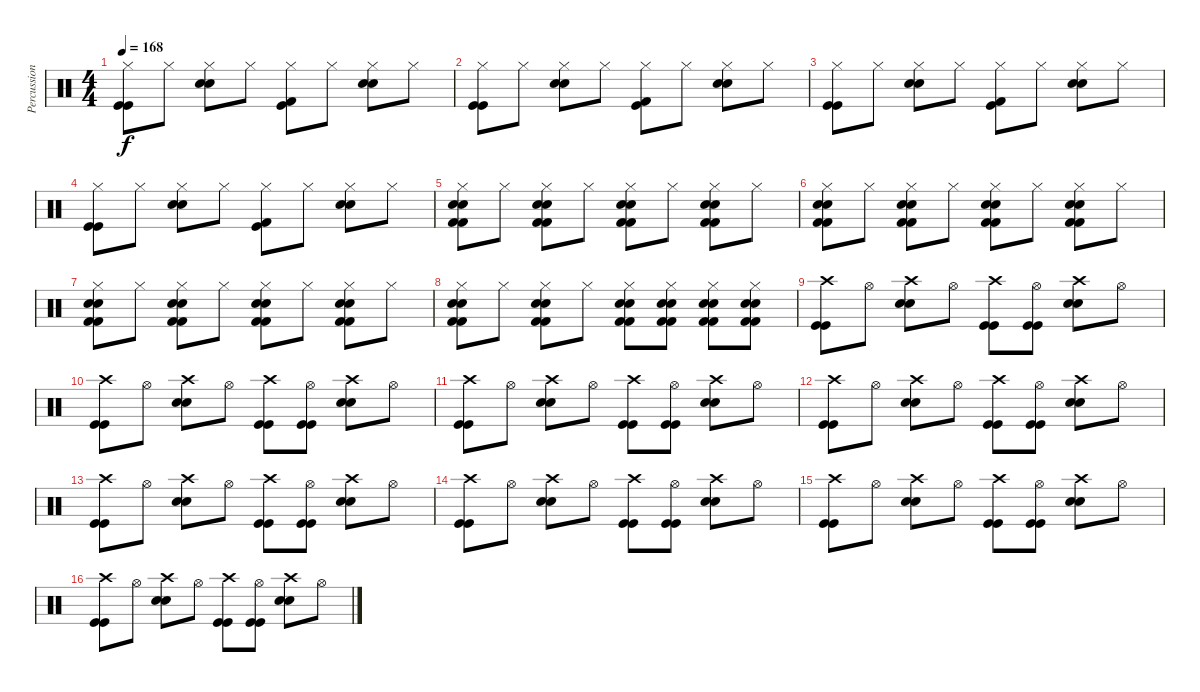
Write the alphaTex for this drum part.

\track ("Percussion" "Percussion") {instrument percussion}
\staff {score}
\articulation defaults
\ts (4 4)
\tempo 168
\clef neutral
\ks c
("Kick (hit)" "Hi-Hat (closed)" "Kick (hit)").8{dy f} "Hi-Hat (closed)".8 ("Snare (hit) 2" "Hi-Hat (closed)" "Snare (hit) 2").8 "Hi-Hat (closed)".8 ("Kick (hit)" "Hi-Hat (closed)" "Kick (hit) 2").8 "Hi-Hat (closed)".8 ("Snare (hit) 2" "Hi-Hat (closed)" "Snare (hit) 2").8 "Hi-Hat (closed)".8 |
("Kick (hit)" "Hi-Hat (closed)" "Kick (hit)").8 "Hi-Hat (closed)".8 ("Snare (hit) 2" "Hi-Hat (closed)" "Snare (hit) 2").8 "Hi-Hat (closed)".8 ("Kick (hit)" "Hi-Hat (closed)" "Kick (hit) 2").8 "Hi-Hat (closed)".8 ("Snare (hit) 2" "Hi-Hat (closed)" "Snare (hit) 2").8 "Hi-Hat (closed)".8 |
("Kick (hit)" "Hi-Hat (closed)" "Kick (hit)").8 "Hi-Hat (closed)".8 ("Snare (hit) 2" "Hi-Hat (closed)" "Snare (hit) 2").8 "Hi-Hat (closed)".8 ("Kick (hit)" "Hi-Hat (closed)" "Kick (hit) 2").8 "Hi-Hat (closed)".8 ("Snare (hit) 2" "Hi-Hat (closed)" "Snare (hit) 2").8 "Hi-Hat (closed)".8 |
("Kick (hit)" "Hi-Hat (closed)" "Kick (hit)").8 "Hi-Hat (closed)".8 ("Snare (hit) 2" "Hi-Hat (closed)" "Snare (hit) 2").8 "Hi-Hat (closed)".8 ("Kick (hit)" "Hi-Hat (closed)" "Kick (hit) 2").8 "Hi-Hat (closed)".8 ("Snare (hit) 2" "Hi-Hat (closed)" "Snare (hit) 2").8 "Hi-Hat (closed)".8 |
("Snare (hit) 2" "Kick (hit) 2" "Snare (hit) 2" "Hi-Hat (closed)" "Kick (hit) 2").8 "Hi-Hat (closed)".8 ("Snare (hit) 2" "Kick (hit) 2" "Snare (hit) 2" "Hi-Hat (closed)" "Kick (hit) 2").8 "Hi-Hat (closed)".8 ("Snare (hit) 2" "Kick (hit) 2" "Snare (hit) 2" "Hi-Hat (closed)" "Kick (hit) 2").8 "Hi-Hat (closed)".8 ("Snare (hit) 2" "Kick (hit) 2" "Snare (hit) 2" "Hi-Hat (closed)" "Kick (hit) 2").8 "Hi-Hat (closed)".8 |
("Snare (hit) 2" "Kick (hit) 2" "Snare (hit) 2" "Hi-Hat (closed)" "Kick (hit) 2").8 "Hi-Hat (closed)".8 ("Snare (hit) 2" "Kick (hit) 2" "Snare (hit) 2" "Hi-Hat (closed)" "Kick (hit) 2").8 "Hi-Hat (closed)".8 ("Snare (hit) 2" "Kick (hit) 2" "Snare (hit) 2" "Hi-Hat (closed)" "Kick (hit) 2").8 "Hi-Hat (closed)".8 ("Snare (hit) 2" "Kick (hit) 2" "Snare (hit) 2" "Hi-Hat (closed)" "Kick (hit) 2").8 "Hi-Hat (closed)".8 |
("Snare (hit) 2" "Kick (hit) 2" "Snare (hit) 2" "Hi-Hat (closed)" "Kick (hit) 2").8 "Hi-Hat (closed)".8 ("Snare (hit) 2" "Kick (hit) 2" "Snare (hit) 2" "Hi-Hat (closed)" "Kick (hit) 2").8 "Hi-Hat (closed)".8 ("Snare (hit) 2" "Kick (hit) 2" "Snare (hit) 2" "Hi-Hat (closed)" "Kick (hit) 2").8 "Hi-Hat (closed)".8 ("Snare (hit) 2" "Kick (hit) 2" "Snare (hit) 2" "Hi-Hat (closed)" "Kick (hit) 2").8 "Hi-Hat (closed)".8 |
("Snare (hit) 2" "Kick (hit) 2" "Snare (hit) 2" "Hi-Hat (closed)" "Kick (hit) 2").8 "Hi-Hat (closed)".8 ("Snare (hit) 2" "Kick (hit) 2" "Snare (hit) 2" "Hi-Hat (closed)" "Kick (hit) 2").8 "Hi-Hat (closed)".8 ("Snare (hit) 2" "Kick (hit) 2" "Snare (hit) 2" "Hi-Hat (closed)" "Kick (hit) 2").8 ("Snare (hit) 2" "Kick (hit) 2" "Snare (hit) 2" "Hi-Hat (closed)" "Kick (hit) 2").8 ("Snare (hit) 2" "Kick (hit) 2" "Snare (hit) 2" "Hi-Hat (closed)" "Kick (hit) 2").8 ("Snare (hit) 2" "Kick (hit) 2" "Snare (hit) 2" "Hi-Hat (closed)" "Kick (hit) 2").8 |
("Crash high (hit)" "Kick (hit)" "Kick (hit)").8 "Hi-Hat (open)".8 ("Crash high (hit)" "Snare (hit) 2" "Snare (hit) 2").8 "Hi-Hat (open)".8 ("Crash high (hit)" "Kick (hit)" "Kick (hit)").8 ("Hi-Hat (open)" "Kick (hit)" "Kick (hit)").8 ("Crash high (hit)" "Snare (hit) 2" "Snare (hit) 2").8 "Hi-Hat (open)".8 |
("Crash high (hit)" "Kick (hit)" "Kick (hit)").8 "Hi-Hat (open)".8 ("Crash high (hit)" "Snare (hit) 2" "Snare (hit) 2").8 "Hi-Hat (open)".8 ("Crash high (hit)" "Kick (hit)" "Kick (hit)").8 ("Hi-Hat (open)" "Kick (hit)" "Kick (hit)").8 ("Crash high (hit)" "Snare (hit) 2" "Snare (hit) 2").8 "Hi-Hat (open)".8 |
("Crash high (hit)" "Kick (hit)" "Kick (hit)").8 "Hi-Hat (open)".8 ("Crash high (hit)" "Snare (hit) 2" "Snare (hit) 2").8 "Hi-Hat (open)".8 ("Crash high (hit)" "Kick (hit)" "Kick (hit)").8 ("Hi-Hat (open)" "Kick (hit)" "Kick (hit)").8 ("Crash high (hit)" "Snare (hit) 2" "Snare (hit) 2").8 "Hi-Hat (open)".8 |
("Crash high (hit)" "Kick (hit)" "Kick (hit)").8 "Hi-Hat (open)".8 ("Crash high (hit)" "Snare (hit) 2" "Snare (hit) 2").8 "Hi-Hat (open)".8 ("Crash high (hit)" "Kick (hit)" "Kick (hit)").8 ("Hi-Hat (open)" "Kick (hit)" "Kick (hit)").8 ("Crash high (hit)" "Snare (hit) 2" "Snare (hit) 2").8 "Hi-Hat (open)".8 |
("Crash high (hit)" "Kick (hit)" "Kick (hit)").8 "Hi-Hat (open)".8 ("Crash high (hit)" "Snare (hit) 2" "Snare (hit) 2").8 "Hi-Hat (open)".8 ("Crash high (hit)" "Kick (hit)" "Kick (hit)").8 ("Hi-Hat (open)" "Kick (hit)" "Kick (hit)").8 ("Crash high (hit)" "Snare (hit) 2" "Snare (hit) 2").8 "Hi-Hat (open)".8 |
("Crash high (hit)" "Kick (hit)" "Kick (hit)").8 "Hi-Hat (open)".8 ("Crash high (hit)" "Snare (hit) 2" "Snare (hit) 2").8 "Hi-Hat (open)".8 ("Crash high (hit)" "Kick (hit)" "Kick (hit)").8 ("Hi-Hat (open)" "Kick (hit)" "Kick (hit)").8 ("Crash high (hit)" "Snare (hit) 2" "Snare (hit) 2").8 "Hi-Hat (open)".8 |
("Crash high (hit)" "Kick (hit)" "Kick (hit)").8 "Hi-Hat (open)".8 ("Crash high (hit)" "Snare (hit) 2" "Snare (hit) 2").8 "Hi-Hat (open)".8 ("Crash high (hit)" "Kick (hit)" "Kick (hit)").8 ("Hi-Hat (open)" "Kick (hit)" "Kick (hit)").8 ("Crash high (hit)" "Snare (hit) 2" "Snare (hit) 2").8 "Hi-Hat (open)".8 |
("Crash high (hit)" "Kick (hit)" "Kick (hit)").8 "Hi-Hat (open)".8 ("Crash high (hit)" "Snare (hit) 2" "Snare (hit) 2").8 "Hi-Hat (open)".8 ("Crash high (hit)" "Kick (hit)" "Kick (hit)").8 ("Hi-Hat (open)" "Kick (hit)" "Kick (hit)").8 ("Crash high (hit)" "Snare (hit) 2" "Snare (hit) 2").8 "Hi-Hat (open)".8
